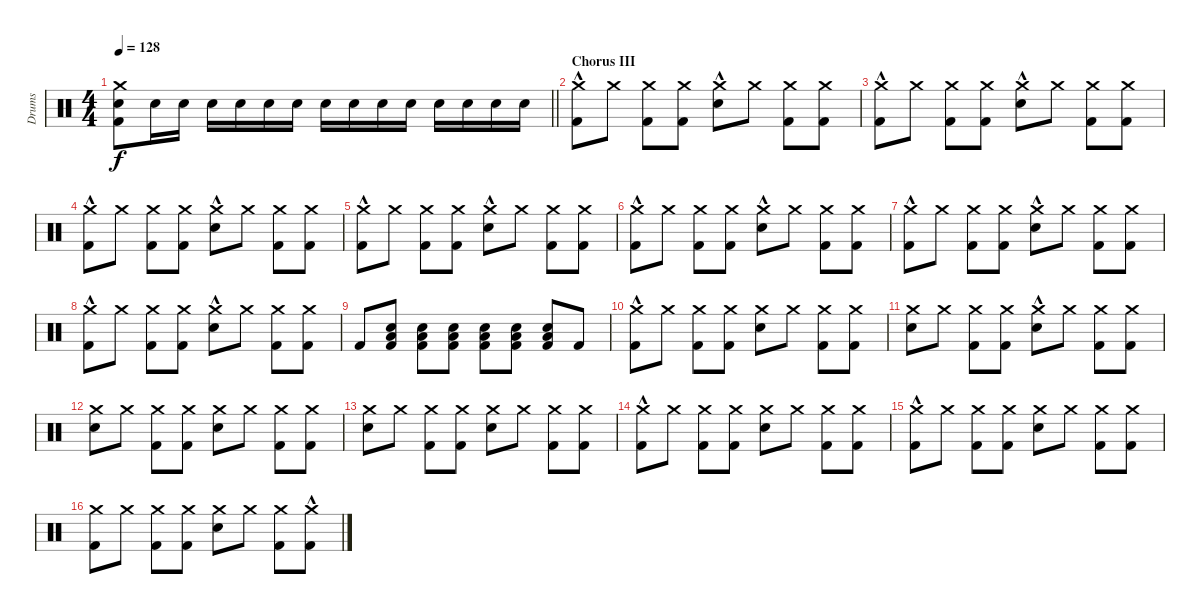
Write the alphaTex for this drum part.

\track ("Drums" "Drums") {instrument percussion}
\staff {score}
\articulation defaults
\ts (4 4)
\tempo 128
\clef neutral
\barLineRight lightlight
\ks c
("Crash medium (hit)" "Snare (hit) 2" "Kick (hit) 2").8{dy f} "Snare (hit) 2".16 "Snare (hit) 2".16 "Snare (hit) 2".16 "Snare (hit) 2".16 "Snare (hit) 2".16 "Snare (hit) 2".16 "Snare (hit) 2".16 "Snare (hit) 2".16 "Snare (hit) 2".16 "Snare (hit) 2".16 "Snare (hit) 2".16 "Snare (hit) 2".16 "Snare (hit) 2".16 "Snare (hit) 2".16 |
\section ("" "Chorus III")
("Crash medium (hit)"{hac} "Kick (hit) 2").8 "Crash medium (hit)".8 ("Crash medium (hit)" "Kick (hit) 2").8 ("Crash medium (hit)" "Kick (hit) 2").8 ("Crash medium (hit)"{hac} "Snare (hit) 2").8 "Crash medium (hit)".8 ("Crash medium (hit)" "Kick (hit) 2").8 ("Crash medium (hit)" "Kick (hit) 2").8 |
("Crash medium (hit)"{hac} "Kick (hit) 2").8 "Crash medium (hit)".8 ("Crash medium (hit)" "Kick (hit) 2").8 ("Crash medium (hit)" "Kick (hit) 2").8 ("Crash medium (hit)"{hac} "Snare (hit) 2").8 "Crash medium (hit)".8 ("Crash medium (hit)" "Kick (hit) 2").8 ("Crash medium (hit)" "Kick (hit) 2").8 |
("Crash medium (hit)"{hac} "Kick (hit) 2").8 "Crash medium (hit)".8 ("Crash medium (hit)" "Kick (hit) 2").8 ("Crash medium (hit)" "Kick (hit) 2").8 ("Crash medium (hit)"{hac} "Snare (hit) 2").8 "Crash medium (hit)".8 ("Crash medium (hit)" "Kick (hit) 2").8 ("Crash medium (hit)" "Kick (hit) 2").8 |
("Crash medium (hit)"{hac} "Kick (hit) 2").8 "Crash medium (hit)".8 ("Crash medium (hit)" "Kick (hit) 2").8 ("Crash medium (hit)" "Kick (hit) 2").8 ("Crash medium (hit)"{hac} "Snare (hit) 2").8 "Crash medium (hit)".8 ("Crash medium (hit)" "Kick (hit) 2").8 ("Crash medium (hit)" "Kick (hit) 2").8 |
("Crash medium (hit)"{hac} "Kick (hit) 2").8 "Crash medium (hit)".8 ("Crash medium (hit)" "Kick (hit) 2").8 ("Crash medium (hit)" "Kick (hit) 2").8 ("Crash medium (hit)"{hac} "Snare (hit) 2").8 "Crash medium (hit)".8 ("Crash medium (hit)" "Kick (hit) 2").8 ("Crash medium (hit)" "Kick (hit) 2").8 |
("Crash medium (hit)"{hac} "Kick (hit) 2").8 "Crash medium (hit)".8 ("Crash medium (hit)" "Kick (hit) 2").8 ("Crash medium (hit)" "Kick (hit) 2").8 ("Crash medium (hit)"{hac} "Snare (hit) 2").8 "Crash medium (hit)".8 ("Crash medium (hit)" "Kick (hit) 2").8 ("Crash medium (hit)" "Kick (hit) 2").8 |
("Crash medium (hit)"{hac} "Kick (hit) 2").8 "Crash medium (hit)".8 ("Crash medium (hit)" "Kick (hit) 2").8 ("Crash medium (hit)" "Kick (hit) 2").8 ("Crash medium (hit)"{hac} "Snare (hit) 2").8 "Crash medium (hit)".8 ("Crash medium (hit)" "Kick (hit) 2").8 ("Crash medium (hit)" "Kick (hit) 2").8 |
"Kick (hit) 2".8 ("Snare (hit) 2" "Low Floor Tom (hit)" "Kick (hit) 2").8 ("Snare (hit) 2" "Low Floor Tom (hit)" "Kick (hit) 2").8 ("Snare (hit) 2" "Low Floor Tom (hit)" "Kick (hit) 2").8 ("Snare (hit) 2" "Low Floor Tom (hit)" "Kick (hit) 2").8 ("Snare (hit) 2" "Low Floor Tom (hit)" "Kick (hit) 2").8 ("Snare (hit) 2" "Low Floor Tom (hit)" "Kick (hit) 2").8 "Kick (hit) 2".8 |
("Crash medium (hit)"{hac} "Kick (hit) 2").8 "Crash medium (hit)".8 ("Crash medium (hit)" "Kick (hit) 2").8 ("Crash medium (hit)" "Kick (hit) 2").8 ("Crash medium (hit)" "Snare (hit) 2").8 "Crash medium (hit)".8 ("Crash medium (hit)" "Kick (hit) 2").8 ("Crash medium (hit)" "Kick (hit) 2").8 |
("Crash medium (hit)" "Snare (hit) 2").8 "Crash medium (hit)".8 ("Crash medium (hit)" "Kick (hit) 2").8 ("Crash medium (hit)" "Kick (hit) 2").8 ("Crash medium (hit)"{hac} "Snare (hit) 2").8 "Crash medium (hit)".8 ("Crash medium (hit)" "Kick (hit) 2").8 ("Crash medium (hit)" "Kick (hit) 2").8 |
("Crash medium (hit)" "Snare (hit) 2").8 "Crash medium (hit)".8 ("Crash medium (hit)" "Kick (hit) 2").8 ("Crash medium (hit)" "Kick (hit) 2").8 ("Crash medium (hit)" "Snare (hit) 2").8 "Crash medium (hit)".8 ("Crash medium (hit)" "Kick (hit) 2").8 ("Crash medium (hit)" "Kick (hit) 2").8 |
("Crash medium (hit)" "Snare (hit) 2").8 "Crash medium (hit)".8 ("Crash medium (hit)" "Kick (hit) 2").8 ("Crash medium (hit)" "Kick (hit) 2").8 ("Crash medium (hit)" "Snare (hit) 2").8 "Crash medium (hit)".8 ("Crash medium (hit)" "Kick (hit) 2").8 ("Crash medium (hit)" "Kick (hit) 2").8 |
("Crash medium (hit)"{hac} "Kick (hit) 2").8 "Crash medium (hit)".8 ("Crash medium (hit)" "Kick (hit) 2").8 ("Crash medium (hit)" "Kick (hit) 2").8 ("Crash medium (hit)" "Snare (hit) 2").8 "Crash medium (hit)".8 ("Crash medium (hit)" "Kick (hit) 2").8 ("Crash medium (hit)" "Kick (hit) 2").8 |
("Crash medium (hit)"{hac} "Kick (hit) 2").8 "Crash medium (hit)".8 ("Crash medium (hit)" "Kick (hit) 2").8 ("Crash medium (hit)" "Kick (hit) 2").8 ("Crash medium (hit)" "Snare (hit) 2").8 "Crash medium (hit)".8 ("Crash medium (hit)" "Kick (hit) 2").8 ("Crash medium (hit)" "Kick (hit) 2").8 |
("Crash medium (hit)" "Kick (hit) 2").8 "Crash medium (hit)".8 ("Crash medium (hit)" "Kick (hit) 2").8 ("Crash medium (hit)" "Kick (hit) 2").8 ("Crash medium (hit)" "Snare (hit) 2").8 "Crash medium (hit)".8 ("Crash medium (hit)" "Kick (hit) 2").8 ("Crash medium (hit)"{hac} "Kick (hit) 2").8
